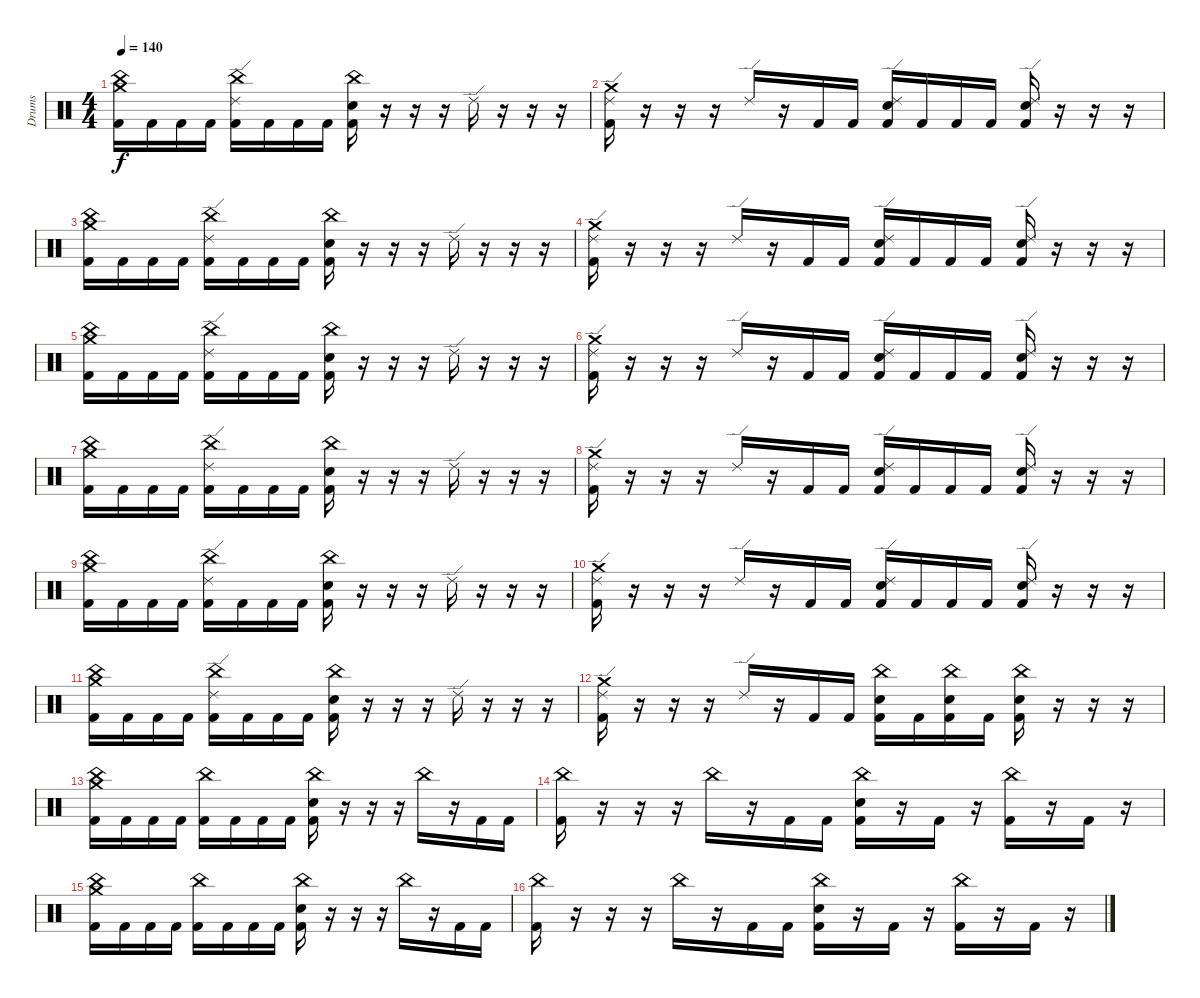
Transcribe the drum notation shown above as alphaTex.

\track ("Drums" "Drums") {instrument percussion}
\staff {score}
\articulation defaults
\ts (4 4)
\tempo 140
\clef neutral
\ks c
("China (hit)" "Crash medium (hit)" "Kick (hit) 2").16{dy f} "Kick (hit) 2".16 "Kick (hit) 2".16 "Kick (hit) 2".16 ("China (hit)" "Ride (edge) 2" "Kick (hit) 2").16 "Kick (hit) 2".16 "Kick (hit) 2".16 "Kick (hit) 2".16 ("China (hit)" "Electric Snare (hit)" "Kick (hit) 2").16 r.16 r.16 r.16 "Ride (edge) 2".16 r.16 r.16 r.16 |
("Crash medium (hit)" "Ride (edge) 2" "Kick (hit) 2").16 r.16 r.16 r.16 "Ride (edge) 2".16 r.16 "Kick (hit) 2".16 "Kick (hit) 2".16 ("Ride (edge) 2" "Electric Snare (hit)" "Kick (hit) 2").16 "Kick (hit) 2".16 "Kick (hit) 2".16 "Kick (hit) 2".16 ("Ride (edge) 2" "Electric Snare (hit)" "Kick (hit) 2").16 r.16 r.16 r.16 |
("China (hit)" "Crash medium (hit)" "Kick (hit) 2").16 "Kick (hit) 2".16 "Kick (hit) 2".16 "Kick (hit) 2".16 ("China (hit)" "Ride (edge) 2" "Kick (hit) 2").16 "Kick (hit) 2".16 "Kick (hit) 2".16 "Kick (hit) 2".16 ("China (hit)" "Electric Snare (hit)" "Kick (hit) 2").16 r.16 r.16 r.16 "Ride (edge) 2".16 r.16 r.16 r.16 |
("Crash medium (hit)" "Ride (edge) 2" "Kick (hit) 2").16 r.16 r.16 r.16 "Ride (edge) 2".16 r.16 "Kick (hit) 2".16 "Kick (hit) 2".16 ("Ride (edge) 2" "Electric Snare (hit)" "Kick (hit) 2").16 "Kick (hit) 2".16 "Kick (hit) 2".16 "Kick (hit) 2".16 ("Ride (edge) 2" "Electric Snare (hit)" "Kick (hit) 2").16 r.16 r.16 r.16 |
("China (hit)" "Crash medium (hit)" "Kick (hit) 2").16 "Kick (hit) 2".16 "Kick (hit) 2".16 "Kick (hit) 2".16 ("China (hit)" "Ride (edge) 2" "Kick (hit) 2").16 "Kick (hit) 2".16 "Kick (hit) 2".16 "Kick (hit) 2".16 ("China (hit)" "Electric Snare (hit)" "Kick (hit) 2").16 r.16 r.16 r.16 "Ride (edge) 2".16 r.16 r.16 r.16 |
("Crash medium (hit)" "Ride (edge) 2" "Kick (hit) 2").16 r.16 r.16 r.16 "Ride (edge) 2".16 r.16 "Kick (hit) 2".16 "Kick (hit) 2".16 ("Ride (edge) 2" "Electric Snare (hit)" "Kick (hit) 2").16 "Kick (hit) 2".16 "Kick (hit) 2".16 "Kick (hit) 2".16 ("Ride (edge) 2" "Electric Snare (hit)" "Kick (hit) 2").16 r.16 r.16 r.16 |
("China (hit)" "Crash medium (hit)" "Kick (hit) 2").16 "Kick (hit) 2".16 "Kick (hit) 2".16 "Kick (hit) 2".16 ("China (hit)" "Ride (edge) 2" "Kick (hit) 2").16 "Kick (hit) 2".16 "Kick (hit) 2".16 "Kick (hit) 2".16 ("China (hit)" "Electric Snare (hit)" "Kick (hit) 2").16 r.16 r.16 r.16 "Ride (edge) 2".16 r.16 r.16 r.16 |
("Crash medium (hit)" "Ride (edge) 2" "Kick (hit) 2").16 r.16 r.16 r.16 "Ride (edge) 2".16 r.16 "Kick (hit) 2".16 "Kick (hit) 2".16 ("Ride (edge) 2" "Electric Snare (hit)" "Kick (hit) 2").16 "Kick (hit) 2".16 "Kick (hit) 2".16 "Kick (hit) 2".16 ("Ride (edge) 2" "Electric Snare (hit)" "Kick (hit) 2").16 r.16 r.16 r.16 |
("China (hit)" "Crash medium (hit)" "Kick (hit) 2").16 "Kick (hit) 2".16 "Kick (hit) 2".16 "Kick (hit) 2".16 ("China (hit)" "Ride (edge) 2" "Kick (hit) 2").16 "Kick (hit) 2".16 "Kick (hit) 2".16 "Kick (hit) 2".16 ("China (hit)" "Electric Snare (hit)" "Kick (hit) 2").16 r.16 r.16 r.16 "Ride (edge) 2".16 r.16 r.16 r.16 |
("Crash medium (hit)" "Ride (edge) 2" "Kick (hit) 2").16 r.16 r.16 r.16 "Ride (edge) 2".16 r.16 "Kick (hit) 2".16 "Kick (hit) 2".16 ("Ride (edge) 2" "Electric Snare (hit)" "Kick (hit) 2").16 "Kick (hit) 2".16 "Kick (hit) 2".16 "Kick (hit) 2".16 ("Ride (edge) 2" "Electric Snare (hit)" "Kick (hit) 2").16 r.16 r.16 r.16 |
("China (hit)" "Crash medium (hit)" "Kick (hit) 2").16 "Kick (hit) 2".16 "Kick (hit) 2".16 "Kick (hit) 2".16 ("China (hit)" "Ride (edge) 2" "Kick (hit) 2").16 "Kick (hit) 2".16 "Kick (hit) 2".16 "Kick (hit) 2".16 ("China (hit)" "Electric Snare (hit)" "Kick (hit) 2").16 r.16 r.16 r.16 "Ride (edge) 2".16 r.16 r.16 r.16 |
("Crash medium (hit)" "Ride (edge) 2" "Kick (hit) 2").16 r.16 r.16 r.16 "Ride (edge) 2".16 r.16 "Kick (hit) 2".16 "Kick (hit) 2".16 ("China (hit)" "Electric Snare (hit)" "Kick (hit) 2").16 "Kick (hit) 2".16 ("China (hit)" "Electric Snare (hit)" "Kick (hit) 2").16 "Kick (hit) 2".16 ("China (hit)" "Electric Snare (hit)" "Kick (hit) 2").16 r.16 r.16 r.16 |
("China (hit)" "Crash medium (hit)" "Kick (hit) 2").16 "Kick (hit) 2".16 "Kick (hit) 2".16 "Kick (hit) 2".16 ("China (hit)" "Kick (hit) 2").16 "Kick (hit) 2".16 "Kick (hit) 2".16 "Kick (hit) 2".16 ("China (hit)" "Electric Snare (hit)" "Kick (hit) 2").16 r.16 r.16 r.16 "China (hit)".16 r.16 "Kick (hit) 2".16 "Kick (hit) 2".16 |
("China (hit)" "Kick (hit) 2").16 r.16 r.16 r.16 "China (hit)".16 r.16 "Kick (hit) 2".16 "Kick (hit) 2".16 ("China (hit)" "Electric Snare (hit)" "Kick (hit) 2").16 r.16 "Kick (hit) 2".16 r.16 ("China (hit)" "Kick (hit) 2").16 r.16 "Kick (hit) 2".16 r.16 |
("China (hit)" "Crash medium (hit)" "Kick (hit) 2").16 "Kick (hit) 2".16 "Kick (hit) 2".16 "Kick (hit) 2".16 ("China (hit)" "Kick (hit) 2").16 "Kick (hit) 2".16 "Kick (hit) 2".16 "Kick (hit) 2".16 ("China (hit)" "Electric Snare (hit)" "Kick (hit) 2").16 r.16 r.16 r.16 "China (hit)".16 r.16 "Kick (hit) 2".16 "Kick (hit) 2".16 |
("China (hit)" "Kick (hit) 2").16 r.16 r.16 r.16 "China (hit)".16 r.16 "Kick (hit) 2".16 "Kick (hit) 2".16 ("China (hit)" "Electric Snare (hit)" "Kick (hit) 2").16 r.16 "Kick (hit) 2".16 r.16 ("China (hit)" "Kick (hit) 2").16 r.16 "Kick (hit) 2".16 r.16
